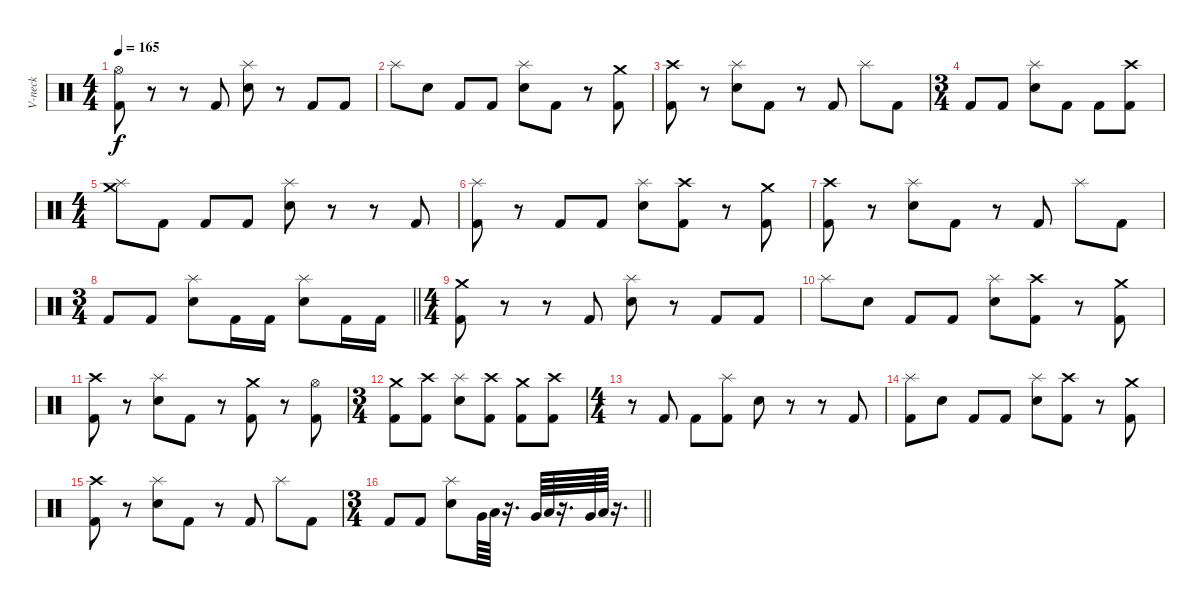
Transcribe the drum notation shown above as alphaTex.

\track ("V-neck" "V-neck") {instrument percussion}
\staff {score}
\articulation defaults
\ts (4 4)
\section ("" "")
\tempo 165
\clef neutral
\ks c
("Hi-Hat (open)" "Kick (hit) 2").8{dy f} r.8 r.8 "Kick (hit) 2".8 ("Splash (hit)" "Electric Snare (hit)").8 r.8 "Kick (hit) 2".8 "Kick (hit) 2".8 |
"Splash (hit)".8 "Electric Snare (hit)".8 "Kick (hit) 2".8 "Kick (hit) 2".8 ("Splash (hit)" "Electric Snare (hit)").8 "Kick (hit) 2".8 r.8 ("Crash medium (hit)" "Kick (hit) 2").8 |
("Crash high (hit)" "Kick (hit) 2").8 r.8 ("Splash (hit)" "Electric Snare (hit)").8 "Kick (hit) 2".8 r.8 "Kick (hit) 2".8 "Splash (hit)".8 "Kick (hit) 2".8 |
\ts (3 4)
"Kick (hit) 2".8 "Kick (hit) 2".8 ("Splash (hit)" "Electric Snare (hit)").8 "Kick (hit) 2".8 "Kick (hit) 2".8 ("Crash high (hit)" "Kick (hit) 2").8 |
\ts (4 4)
("Crash medium (hit)" "Splash (hit)").8 "Kick (hit) 2".8 "Kick (hit) 2".8 "Kick (hit) 2".8 ("Splash (hit)" "Electric Snare (hit)").8 r.8 r.8 "Kick (hit) 2".8 |
("Splash (hit)" "Kick (hit) 2").8 r.8 "Kick (hit) 2".8 "Kick (hit) 2".8 ("Splash (hit)" "Electric Snare (hit)").8 ("Crash high (hit)" "Kick (hit) 2").8 r.8 ("Crash medium (hit)" "Kick (hit) 2").8 |
("Crash high (hit)" "Kick (hit) 2").8 r.8 ("Splash (hit)" "Electric Snare (hit)").8 "Kick (hit) 2".8 r.8 "Kick (hit) 2".8 "Splash (hit)".8 "Kick (hit) 2".8 |
\ts (3 4)
\barLineRight lightlight "Kick (hit) 2".8 "Kick (hit) 2".8
("Splash (hit)" "Electric Snare (hit)").8 "Kick (hit) 2".16 "Kick (hit) 2".16 ("Splash (hit)" "Electric Snare (hit)").8 "Kick (hit) 2".16 "Kick (hit) 2".16 |
\ts (4 4)
\section ("" "")
("Crash medium (hit)" "Kick (hit) 2").8 r.8 r.8 "Kick (hit) 2".8 ("Splash (hit)" "Electric Snare (hit)").8 r.8 "Kick (hit) 2".8 "Kick (hit) 2".8 |
"Splash (hit)".8 "Electric Snare (hit)".8 "Kick (hit) 2".8 "Kick (hit) 2".8 ("Splash (hit)" "Electric Snare (hit)").8 ("Crash high (hit)" "Kick (hit) 2").8 r.8 ("Crash medium (hit)" "Kick (hit) 2").8 |
("Crash high (hit)" "Kick (hit) 2").8 r.8 ("Splash (hit)" "Electric Snare (hit)").8 "Kick (hit) 2".8 r.8 ("Crash medium (hit)" "Kick (hit) 2").8 r.8 ("Hi-Hat (open)" "Kick (hit) 2").8 |
\ts (3 4)
("Crash medium (hit)" "Kick (hit) 2").8 ("Crash high (hit)" "Kick (hit) 2").8 ("Splash (hit)" "Electric Snare (hit)").8 ("Crash high (hit)" "Kick (hit) 2").8 ("Crash medium (hit)" "Kick (hit) 2").8 ("Crash high (hit)" "Kick (hit) 2").8 |
\ts (4 4)
r.8 "Kick (hit) 2".8 "Kick (hit) 2".8 ("Splash (hit)" "Kick (hit) 2").8 "Electric Snare (hit)".8 r.8 r.8 "Kick (hit) 2".8 |
("Splash (hit)" "Kick (hit) 2").8 "Electric Snare (hit)".8 "Kick (hit) 2".8 "Kick (hit) 2".8 ("Splash (hit)" "Electric Snare (hit)").8 ("Crash high (hit)" "Kick (hit) 2").8 r.8 ("Crash medium (hit)" "Kick (hit) 2").8 |
("Crash high (hit)" "Kick (hit) 2").8 r.8 ("Splash (hit)" "Electric Snare (hit)").8 "Kick (hit) 2".8 r.8 "Kick (hit) 2".8 "Splash (hit)".8 "Kick (hit) 2".8 |
\ts (3 4)
\barLineRight lightlight "Kick (hit) 2".8 "Kick (hit) 2".8
("Splash (hit)" "Electric Snare (hit)").8 "Very Low Tom (hit)".64 "Low Tom (hit)".64 r.16{d} "Very Low Tom (hit)".64 "Low Tom (hit)".64 r.16{d} "Very Low Tom (hit)".64 "Low Tom (hit)".64 r.16{d}
